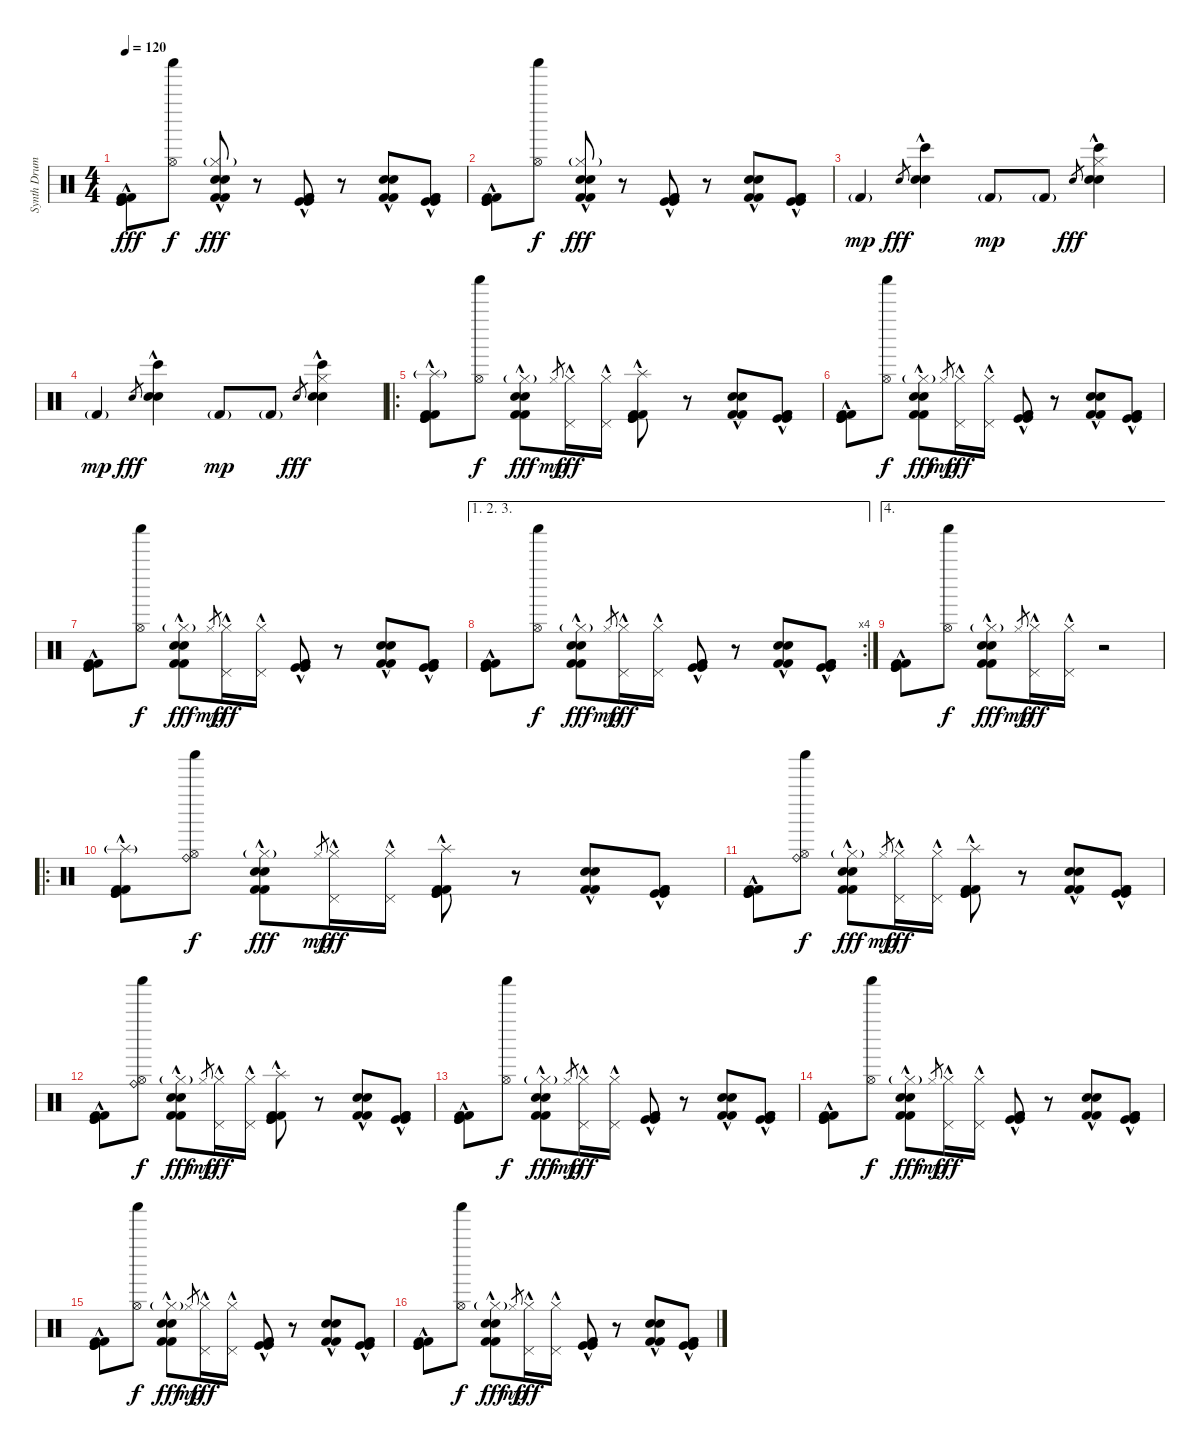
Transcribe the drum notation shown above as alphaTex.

\track ("Synth Drum" "Synth Drum") {instrument percussion}
\staff {score}
\articulation defaults
\ts (4 4)
\tempo 120
\clef neutral
\ks c
("Kick (hit)"{hac} "Kick (hit) 2"{hac} "Kick (hit)"{hac} "Kick (hit) 2"{hac}).8{dy fff} ("Shaker (hit)" "Hi-Hat (open)").8{dy f} ("Hi-Hat (closed)"{g} "Snare (hit) 2"{hac} "Electric Snare (hit)"{hac} "Kick (hit) 2"{hac} "Kick (hit) 2"{hac}).8{dy fff} r.8 ("Kick (hit)"{hac} "Kick (hit)"{hac} "Kick (hit) 2"{hac} "Kick (hit) 2"{hac}).8 r.8 ("Snare (hit) 2"{hac} "Electric Snare (hit)"{hac} "Kick (hit) 2"{hac} "Kick (hit) 2"{hac}).8 ("Kick (hit)"{hac} "Kick (hit)"{hac} "Kick (hit) 2"{hac} "Kick (hit) 2"{hac}).8 |
("Kick (hit)"{hac} "Kick (hit) 2"{hac} "Kick (hit)"{hac} "Kick (hit) 2"{hac}).8 ("Shaker (hit)" "Hi-Hat (open)").8{dy f} ("Hi-Hat (closed)"{g} "Snare (hit) 2"{hac} "Electric Snare (hit)"{hac} "Kick (hit) 2"{hac} "Kick (hit) 2"{hac}).8{dy fff} r.8 ("Kick (hit)"{hac} "Kick (hit)"{hac} "Kick (hit) 2"{hac} "Kick (hit) 2"{hac}).8 r.8 ("Snare (hit) 2"{hac} "Electric Snare (hit)"{hac} "Kick (hit) 2"{hac} "Kick (hit) 2"{hac}).8 ("Kick (hit)"{hac} "Kick (hit)"{hac} "Kick (hit) 2"{hac} "Kick (hit) 2"{hac}).8 |
"Kick (hit) 2"{g}.4{dy mp} "Snare (hit)".8{gr dy fff} ("Electric Snare (hit)"{hac} "Bongo High (hit)"{hac} "Hand Clap (hit)"{hac}).4 "Kick (hit) 2"{g}.8{dy mp} "Kick (hit) 2"{g}.8 "Snare (hit)".8{gr dy fff} ("Hi-Hat (closed)" "Electric Snare (hit)"{hac} "Bongo High (hit)"{hac} "Hand Clap (hit)"{hac}).4 |
"Kick (hit) 2"{g}.4{dy mp} "Snare (hit)".8{gr dy fff} ("Electric Snare (hit)"{hac} "Bongo High (hit)"{hac} "Hand Clap (hit)"{hac}).4 "Kick (hit) 2"{g}.8{dy mp} "Kick (hit) 2"{g}.8 "Snare (hit)".8{gr dy fff} ("Hi-Hat (closed)" "Electric Snare (hit)"{hac} "Bongo High (hit)"{hac} "Hand Clap (hit)"{hac}).4 |
\ro
("Splash (hit)"{g} "Kick (hit)"{hac} "Kick (hit) 2"{hac} "Kick (hit)"{hac} "Kick (hit) 2"{hac}).8 ("Shaker (hit)" "Hi-Hat (open)").8{dy f} ("Hi-Hat (closed)"{g} "Snare (hit) 2"{hac} "Electric Snare (hit)"{hac} "Kick (hit) 2"{hac} "Kick (hit) 2"{hac}).8{dy fff} "Hi-Hat (closed)"{h}.8{gr dy mp} ("Pedal Hi-Hat (hit)"{hac} "Hi-Hat (closed)"{hac}).16{dy fff} ("Pedal Hi-Hat (hit)"{hac} "Hi-Hat (closed)"{hac}).16 ("Splash (hit)" "Kick (hit)"{hac} "Kick (hit)"{hac} "Kick (hit) 2"{hac} "Kick (hit) 2"{hac}).8 r.8 ("Snare (hit) 2"{hac} "Electric Snare (hit)"{hac} "Kick (hit) 2"{hac} "Kick (hit) 2"{hac}).8 ("Kick (hit)"{hac} "Kick (hit)"{hac} "Kick (hit) 2"{hac} "Kick (hit) 2"{hac}).8 |
("Kick (hit)"{hac} "Kick (hit) 2"{hac} "Kick (hit)"{hac} "Kick (hit) 2"{hac}).8 ("Shaker (hit)" "Hi-Hat (open)").8{dy f} ("Hi-Hat (closed)"{g} "Snare (hit) 2"{hac} "Electric Snare (hit)"{hac} "Kick (hit) 2"{hac} "Kick (hit) 2"{hac}).8{dy fff} "Hi-Hat (closed)"{h}.8{gr dy mp} ("Pedal Hi-Hat (hit)"{hac} "Hi-Hat (closed)"{hac}).16{dy fff} ("Pedal Hi-Hat (hit)"{hac} "Hi-Hat (closed)"{hac}).16 ("Kick (hit)"{hac} "Kick (hit)"{hac} "Kick (hit) 2"{hac} "Kick (hit) 2"{hac}).8 r.8 ("Snare (hit) 2"{hac} "Electric Snare (hit)"{hac} "Kick (hit) 2"{hac} "Kick (hit) 2"{hac}).8 ("Kick (hit)"{hac} "Kick (hit)"{hac} "Kick (hit) 2"{hac} "Kick (hit) 2"{hac}).8 |
("Kick (hit)"{hac} "Kick (hit) 2"{hac} "Kick (hit)"{hac} "Kick (hit) 2"{hac}).8 ("Shaker (hit)" "Hi-Hat (open)").8{dy f} ("Hi-Hat (closed)"{g} "Snare (hit) 2"{hac} "Electric Snare (hit)"{hac} "Kick (hit) 2"{hac} "Kick (hit) 2"{hac}).8{dy fff} "Hi-Hat (closed)"{h}.8{gr dy mp} ("Pedal Hi-Hat (hit)"{hac} "Hi-Hat (closed)"{hac}).16{dy fff} ("Pedal Hi-Hat (hit)"{hac} "Hi-Hat (closed)"{hac}).16 ("Kick (hit)"{hac} "Kick (hit)"{hac} "Kick (hit) 2"{hac} "Kick (hit) 2"{hac}).8 r.8 ("Snare (hit) 2"{hac} "Electric Snare (hit)"{hac} "Kick (hit) 2"{hac} "Kick (hit) 2"{hac}).8 ("Kick (hit)"{hac} "Kick (hit)"{hac} "Kick (hit) 2"{hac} "Kick (hit) 2"{hac}).8 |
\ae (1 2 3)
\rc 4
("Kick (hit)"{hac} "Kick (hit) 2"{hac} "Kick (hit)"{hac} "Kick (hit) 2"{hac}).8 ("Shaker (hit)" "Hi-Hat (open)").8{dy f} ("Hi-Hat (closed)"{g} "Snare (hit) 2"{hac} "Electric Snare (hit)"{hac} "Kick (hit) 2"{hac} "Kick (hit) 2"{hac}).8{dy fff} "Hi-Hat (closed)"{h}.8{gr dy mp} ("Pedal Hi-Hat (hit)"{hac} "Hi-Hat (closed)"{hac}).16{dy fff} ("Pedal Hi-Hat (hit)"{hac} "Hi-Hat (closed)"{hac}).16 ("Kick (hit)"{hac} "Kick (hit)"{hac} "Kick (hit) 2"{hac} "Kick (hit) 2"{hac}).8 r.8 ("Snare (hit) 2"{hac} "Electric Snare (hit)"{hac} "Kick (hit) 2"{hac} "Kick (hit) 2"{hac}).8 ("Kick (hit)"{hac} "Kick (hit)"{hac} "Kick (hit) 2"{hac} "Kick (hit) 2"{hac}).8 |
\ae 4
("Kick (hit)"{hac} "Kick (hit) 2"{hac} "Kick (hit)"{hac} "Kick (hit) 2"{hac}).8 ("Shaker (hit)" "Hi-Hat (open)").8{dy f} ("Hi-Hat (closed)"{g} "Snare (hit) 2"{hac} "Electric Snare (hit)"{hac} "Kick (hit) 2"{hac} "Kick (hit) 2"{hac}).8{dy fff} "Hi-Hat (closed)"{h}.8{gr dy mp} ("Pedal Hi-Hat (hit)"{hac} "Hi-Hat (closed)"{hac}).16{dy fff} ("Pedal Hi-Hat (hit)"{hac} "Hi-Hat (closed)"{hac}).16 r.2 |
\ro
("Splash (hit)"{g} "Kick (hit)"{hac} "Kick (hit) 2"{hac} "Kick (hit)"{hac} "Kick (hit) 2"{hac}).8 ("Shaker (hit)" "Hi-Hat (open)" "Ride (bell)").8{dy f} ("Hi-Hat (closed)"{g} "Snare (hit) 2"{hac} "Electric Snare (hit)"{hac} "Kick (hit) 2"{hac} "Kick (hit) 2"{hac}).8{dy fff} "Hi-Hat (closed)"{h}.8{gr dy mp} ("Pedal Hi-Hat (hit)"{hac} "Hi-Hat (closed)"{hac}).16{dy fff} ("Pedal Hi-Hat (hit)"{hac} "Hi-Hat (closed)"{hac}).16 ("Splash (hit)" "Kick (hit)"{hac} "Kick (hit)"{hac} "Kick (hit) 2"{hac} "Kick (hit) 2"{hac}).8 r.8 ("Snare (hit) 2"{hac} "Electric Snare (hit)"{hac} "Kick (hit) 2"{hac} "Kick (hit) 2"{hac}).8 ("Kick (hit)"{hac} "Kick (hit)"{hac} "Kick (hit) 2"{hac} "Kick (hit) 2"{hac}).8 |
("Kick (hit)"{hac} "Kick (hit) 2"{hac} "Kick (hit)"{hac} "Kick (hit) 2"{hac}).8 ("Shaker (hit)" "Hi-Hat (open)" "Ride (bell)").8{dy f} ("Hi-Hat (closed)"{g} "Snare (hit) 2"{hac} "Electric Snare (hit)"{hac} "Kick (hit) 2"{hac} "Kick (hit) 2"{hac}).8{dy fff} "Hi-Hat (closed)"{h}.8{gr dy mp} ("Pedal Hi-Hat (hit)"{hac} "Hi-Hat (closed)"{hac}).16{dy fff} ("Pedal Hi-Hat (hit)"{hac} "Hi-Hat (closed)"{hac}).16 ("Splash (hit)" "Kick (hit)"{hac} "Kick (hit)"{hac} "Kick (hit) 2"{hac} "Kick (hit) 2"{hac}).8 r.8 ("Snare (hit) 2"{hac} "Electric Snare (hit)"{hac} "Kick (hit) 2"{hac} "Kick (hit) 2"{hac}).8 ("Kick (hit)"{hac} "Kick (hit)"{hac} "Kick (hit) 2"{hac} "Kick (hit) 2"{hac}).8 |
("Kick (hit)"{hac} "Kick (hit) 2"{hac} "Kick (hit)"{hac} "Kick (hit) 2"{hac}).8 ("Shaker (hit)" "Hi-Hat (open)" "Ride (bell)").8{dy f} ("Hi-Hat (closed)"{g} "Snare (hit) 2"{hac} "Electric Snare (hit)"{hac} "Kick (hit) 2"{hac} "Kick (hit) 2"{hac}).8{dy fff} "Hi-Hat (closed)"{h}.8{gr dy mp} ("Pedal Hi-Hat (hit)"{hac} "Hi-Hat (closed)"{hac}).16{dy fff} ("Pedal Hi-Hat (hit)"{hac} "Hi-Hat (closed)"{hac}).16 ("Splash (hit)" "Kick (hit)"{hac} "Kick (hit)"{hac} "Kick (hit) 2"{hac} "Kick (hit) 2"{hac}).8 r.8 ("Snare (hit) 2"{hac} "Electric Snare (hit)"{hac} "Kick (hit) 2"{hac} "Kick (hit) 2"{hac}).8 ("Kick (hit)"{hac} "Kick (hit)"{hac} "Kick (hit) 2"{hac} "Kick (hit) 2"{hac}).8 |
("Kick (hit)"{hac} "Kick (hit) 2"{hac} "Kick (hit)"{hac} "Kick (hit) 2"{hac}).8 ("Shaker (hit)" "Hi-Hat (open)").8{dy f} ("Hi-Hat (closed)"{g} "Snare (hit) 2"{hac} "Electric Snare (hit)"{hac} "Kick (hit) 2"{hac} "Kick (hit) 2"{hac}).8{dy fff} "Hi-Hat (closed)"{h}.8{gr dy mp} ("Pedal Hi-Hat (hit)"{hac} "Hi-Hat (closed)"{hac}).16{dy fff} ("Pedal Hi-Hat (hit)"{hac} "Hi-Hat (closed)"{hac}).16 ("Kick (hit)"{hac} "Kick (hit)"{hac} "Kick (hit) 2"{hac} "Kick (hit) 2"{hac}).8 r.8 ("Snare (hit) 2"{hac} "Electric Snare (hit)"{hac} "Kick (hit) 2"{hac} "Kick (hit) 2"{hac}).8 ("Kick (hit)"{hac} "Kick (hit)"{hac} "Kick (hit) 2"{hac} "Kick (hit) 2"{hac}).8 |
("Kick (hit)"{hac} "Kick (hit) 2"{hac} "Kick (hit)"{hac} "Kick (hit) 2"{hac}).8 ("Shaker (hit)" "Hi-Hat (open)").8{dy f} ("Hi-Hat (closed)"{g} "Snare (hit) 2"{hac} "Electric Snare (hit)"{hac} "Kick (hit) 2"{hac} "Kick (hit) 2"{hac}).8{dy fff} "Hi-Hat (closed)"{h}.8{gr dy mp} ("Pedal Hi-Hat (hit)"{hac} "Hi-Hat (closed)"{hac}).16{dy fff} ("Pedal Hi-Hat (hit)"{hac} "Hi-Hat (closed)"{hac}).16 ("Kick (hit)"{hac} "Kick (hit)"{hac} "Kick (hit) 2"{hac} "Kick (hit) 2"{hac}).8 r.8 ("Snare (hit) 2"{hac} "Electric Snare (hit)"{hac} "Kick (hit) 2"{hac} "Kick (hit) 2"{hac}).8 ("Kick (hit)"{hac} "Kick (hit)"{hac} "Kick (hit) 2"{hac} "Kick (hit) 2"{hac}).8 |
("Kick (hit)"{hac} "Kick (hit) 2"{hac} "Kick (hit)"{hac} "Kick (hit) 2"{hac}).8 ("Shaker (hit)" "Hi-Hat (open)").8{dy f} ("Hi-Hat (closed)"{g} "Snare (hit) 2"{hac} "Electric Snare (hit)"{hac} "Kick (hit) 2"{hac} "Kick (hit) 2"{hac}).8{dy fff} "Hi-Hat (closed)"{h}.8{gr dy mp} ("Pedal Hi-Hat (hit)"{hac} "Hi-Hat (closed)"{hac}).16{dy fff} ("Pedal Hi-Hat (hit)"{hac} "Hi-Hat (closed)"{hac}).16 ("Kick (hit)"{hac} "Kick (hit)"{hac} "Kick (hit) 2"{hac} "Kick (hit) 2"{hac}).8 r.8 ("Snare (hit) 2"{hac} "Electric Snare (hit)"{hac} "Kick (hit) 2"{hac} "Kick (hit) 2"{hac}).8 ("Kick (hit)"{hac} "Kick (hit)"{hac} "Kick (hit) 2"{hac} "Kick (hit) 2"{hac}).8 |
("Kick (hit)"{hac} "Kick (hit) 2"{hac} "Kick (hit)"{hac} "Kick (hit) 2"{hac}).8 ("Shaker (hit)" "Hi-Hat (open)").8{dy f} ("Hi-Hat (closed)"{g} "Snare (hit) 2"{hac} "Electric Snare (hit)"{hac} "Kick (hit) 2"{hac} "Kick (hit) 2"{hac}).8{dy fff} "Hi-Hat (closed)"{h}.8{gr dy mp} ("Pedal Hi-Hat (hit)"{hac} "Hi-Hat (closed)"{hac}).16{dy fff} ("Pedal Hi-Hat (hit)"{hac} "Hi-Hat (closed)"{hac}).16 ("Kick (hit)"{hac} "Kick (hit)"{hac} "Kick (hit) 2"{hac} "Kick (hit) 2"{hac}).8 r.8 ("Snare (hit) 2"{hac} "Electric Snare (hit)"{hac} "Kick (hit) 2"{hac} "Kick (hit) 2"{hac}).8 ("Kick (hit)"{hac} "Kick (hit)"{hac} "Kick (hit) 2"{hac} "Kick (hit) 2"{hac}).8
